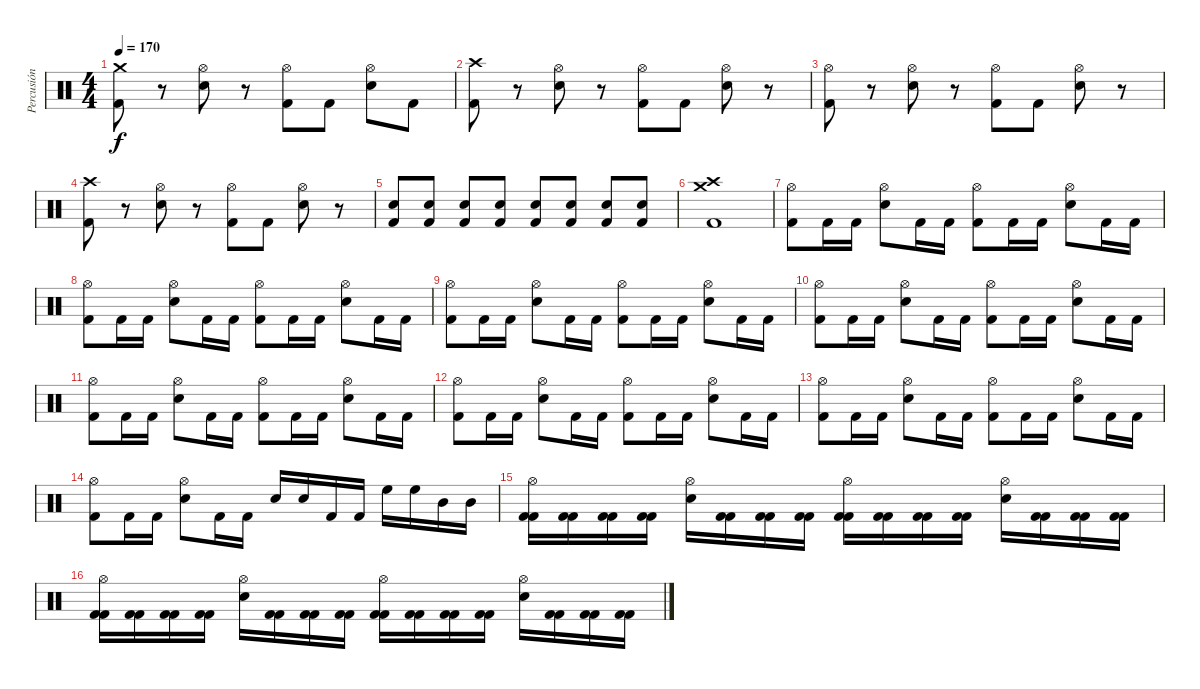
\track ("Percusión" "Percusión") {instrument percussion}
\staff {score}
\articulation defaults
\ts (4 4)
\tempo 170
\clef neutral
\ks c
("Crash medium (hit)" "Kick (hit) 2").8{dy f} r.8 ("Hi-Hat (open)" "Electric Snare (hit)").8 r.8 ("Hi-Hat (open)" "Kick (hit) 2").8 "Kick (hit) 2".8 ("Hi-Hat (open)" "Electric Snare (hit)").8 "Kick (hit) 2".8 |
("Crash high (hit)" "Kick (hit) 2").8 r.8 ("Hi-Hat (open)" "Electric Snare (hit)").8 r.8 ("Hi-Hat (open)" "Kick (hit) 2").8 "Kick (hit) 2".8 ("Hi-Hat (open)" "Electric Snare (hit)").8 r.8 |
("Hi-Hat (open)" "Kick (hit) 2").8 r.8 ("Hi-Hat (open)" "Electric Snare (hit)").8 r.8 ("Hi-Hat (open)" "Kick (hit) 2").8 "Kick (hit) 2".8 ("Hi-Hat (open)" "Electric Snare (hit)").8 r.8 |
("Crash high (hit)" "Kick (hit) 2").8 r.8 ("Hi-Hat (open)" "Electric Snare (hit)").8 r.8 ("Hi-Hat (open)" "Kick (hit) 2").8 "Kick (hit) 2".8 ("Hi-Hat (open)" "Electric Snare (hit)").8 r.8 |
("Kick (hit) 2" "Electric Snare (hit)").8 ("Kick (hit) 2" "Electric Snare (hit)").8 ("Kick (hit) 2" "Electric Snare (hit)").8 ("Kick (hit) 2" "Electric Snare (hit)").8 ("Kick (hit) 2" "Electric Snare (hit)").8 ("Kick (hit) 2" "Electric Snare (hit)").8 ("Kick (hit) 2" "Electric Snare (hit)").8 ("Kick (hit) 2" "Electric Snare (hit)").8 |
("Crash medium (hit)" "Crash high (hit)" "Kick (hit) 2").1 |
("Hi-Hat (open)" "Kick (hit) 2").8 "Kick (hit) 2".16 "Kick (hit) 2".16 ("Hi-Hat (open)" "Electric Snare (hit)").8 "Kick (hit) 2".16 "Kick (hit) 2".16 ("Hi-Hat (open)" "Kick (hit) 2").8 "Kick (hit) 2".16 "Kick (hit) 2".16 ("Hi-Hat (open)" "Electric Snare (hit)").8 "Kick (hit) 2".16 "Kick (hit) 2".16 |
("Hi-Hat (open)" "Kick (hit) 2").8 "Kick (hit) 2".16 "Kick (hit) 2".16 ("Hi-Hat (open)" "Electric Snare (hit)").8 "Kick (hit) 2".16 "Kick (hit) 2".16 ("Hi-Hat (open)" "Kick (hit) 2").8 "Kick (hit) 2".16 "Kick (hit) 2".16 ("Hi-Hat (open)" "Electric Snare (hit)").8 "Kick (hit) 2".16 "Kick (hit) 2".16 |
("Hi-Hat (open)" "Kick (hit) 2").8 "Kick (hit) 2".16 "Kick (hit) 2".16 ("Hi-Hat (open)" "Electric Snare (hit)").8 "Kick (hit) 2".16 "Kick (hit) 2".16 ("Hi-Hat (open)" "Kick (hit) 2").8 "Kick (hit) 2".16 "Kick (hit) 2".16 ("Hi-Hat (open)" "Electric Snare (hit)").8 "Kick (hit) 2".16 "Kick (hit) 2".16 |
("Hi-Hat (open)" "Kick (hit) 2").8 "Kick (hit) 2".16 "Kick (hit) 2".16 ("Hi-Hat (open)" "Electric Snare (hit)").8 "Kick (hit) 2".16 "Kick (hit) 2".16 ("Hi-Hat (open)" "Kick (hit) 2").8 "Kick (hit) 2".16 "Kick (hit) 2".16 ("Hi-Hat (open)" "Electric Snare (hit)").8 "Kick (hit) 2".16 "Kick (hit) 2".16 |
("Hi-Hat (open)" "Kick (hit) 2").8 "Kick (hit) 2".16 "Kick (hit) 2".16 ("Hi-Hat (open)" "Electric Snare (hit)").8 "Kick (hit) 2".16 "Kick (hit) 2".16 ("Hi-Hat (open)" "Kick (hit) 2").8 "Kick (hit) 2".16 "Kick (hit) 2".16 ("Hi-Hat (open)" "Electric Snare (hit)").8 "Kick (hit) 2".16 "Kick (hit) 2".16 |
("Hi-Hat (open)" "Kick (hit) 2").8 "Kick (hit) 2".16 "Kick (hit) 2".16 ("Hi-Hat (open)" "Electric Snare (hit)").8 "Kick (hit) 2".16 "Kick (hit) 2".16 ("Hi-Hat (open)" "Kick (hit) 2").8 "Kick (hit) 2".16 "Kick (hit) 2".16 ("Hi-Hat (open)" "Electric Snare (hit)").8 "Kick (hit) 2".16 "Kick (hit) 2".16 |
("Hi-Hat (open)" "Kick (hit) 2").8 "Kick (hit) 2".16 "Kick (hit) 2".16 ("Hi-Hat (open)" "Electric Snare (hit)").8 "Kick (hit) 2".16 "Kick (hit) 2".16 ("Hi-Hat (open)" "Kick (hit) 2").8 "Kick (hit) 2".16 "Kick (hit) 2".16 ("Hi-Hat (open)" "Electric Snare (hit)").8 "Kick (hit) 2".16 "Kick (hit) 2".16 |
("Hi-Hat (open)" "Kick (hit) 2").8 "Kick (hit) 2".16 "Kick (hit) 2".16 ("Hi-Hat (open)" "Electric Snare (hit)").8 "Kick (hit) 2".16 "Kick (hit) 2".16 "Electric Snare (hit)".16 "Electric Snare (hit)".16 "Kick (hit) 2".16 "Kick (hit) 2".16 "High Floor Tom (hit)".16 "High Floor Tom (hit)".16 "Mid Tom (hit)".16 "Mid Tom (hit)".16 |
("Hi-Hat (open)" "Kick (hit) 2" "Kick (hit) 2").16 ("Kick (hit) 2" "Kick (hit) 2").16 ("Kick (hit) 2" "Kick (hit) 2").16 ("Kick (hit) 2" "Kick (hit) 2").16 ("Hi-Hat (open)" "Electric Snare (hit)").16 ("Kick (hit) 2" "Kick (hit) 2").16 ("Kick (hit) 2" "Kick (hit) 2").16 ("Kick (hit) 2" "Kick (hit) 2").16 ("Hi-Hat (open)" "Kick (hit) 2" "Kick (hit) 2").16 ("Kick (hit) 2" "Kick (hit) 2").16 ("Kick (hit) 2" "Kick (hit) 2").16 ("Kick (hit) 2" "Kick (hit) 2").16 ("Hi-Hat (open)" "Electric Snare (hit)").16 ("Kick (hit) 2" "Kick (hit) 2").16 ("Kick (hit) 2" "Kick (hit) 2").16 ("Kick (hit) 2" "Kick (hit) 2").16 |
("Hi-Hat (open)" "Kick (hit) 2" "Kick (hit) 2").16 ("Kick (hit) 2" "Kick (hit) 2").16 ("Kick (hit) 2" "Kick (hit) 2").16 ("Kick (hit) 2" "Kick (hit) 2").16 ("Hi-Hat (open)" "Electric Snare (hit)").16 ("Kick (hit) 2" "Kick (hit) 2").16 ("Kick (hit) 2" "Kick (hit) 2").16 ("Kick (hit) 2" "Kick (hit) 2").16 ("Hi-Hat (open)" "Kick (hit) 2" "Kick (hit) 2").16 ("Kick (hit) 2" "Kick (hit) 2").16 ("Kick (hit) 2" "Kick (hit) 2").16 ("Kick (hit) 2" "Kick (hit) 2").16 ("Hi-Hat (open)" "Electric Snare (hit)").16 ("Kick (hit) 2" "Kick (hit) 2").16 ("Kick (hit) 2" "Kick (hit) 2").16 ("Kick (hit) 2" "Kick (hit) 2").16
